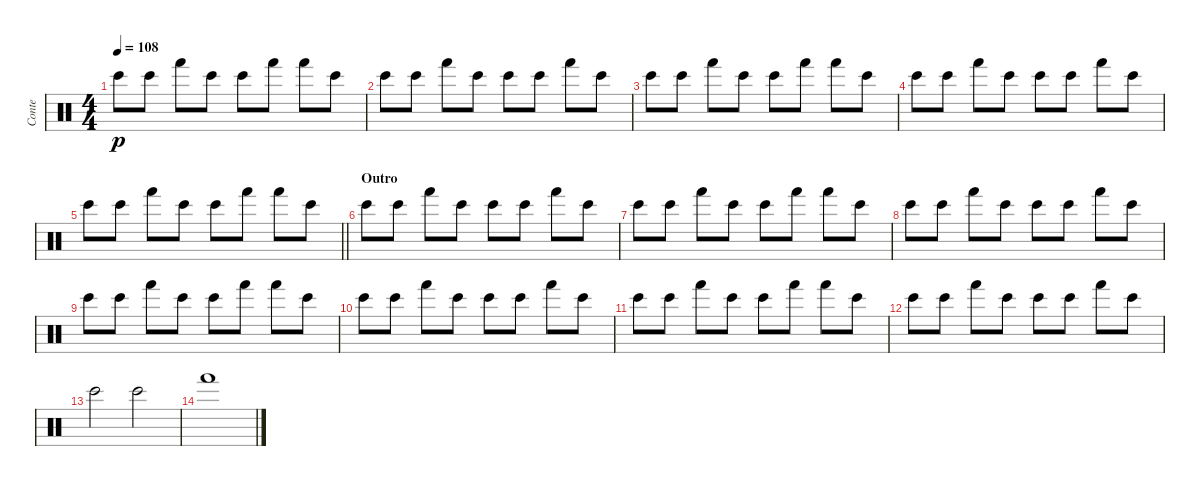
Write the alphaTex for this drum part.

\track ("Conte" "Conte") {instrument percussion}
\staff {score}
\articulation defaults
\ts (4 4)
\tempo 108
\clef neutral
\ks c "Bongo High (hit)".8{dy p} "Bongo High (hit)".8 "Hand (hit)".8 "Bongo High (hit)".8 "Bongo High (hit)".8 "Hand (hit)".8 "Hand (hit)".8 "Bongo High (hit)".8
|
"Bongo High (hit)".8 "Bongo High (hit)".8 "Hand (hit)".8 "Bongo High (hit)".8 "Bongo High (hit)".8 "Bongo High (hit)".8 "Hand (hit)".8 "Bongo High (hit)".8 |
"Bongo High (hit)".8 "Bongo High (hit)".8 "Hand (hit)".8 "Bongo High (hit)".8 "Bongo High (hit)".8 "Hand (hit)".8 "Hand (hit)".8 "Bongo High (hit)".8 |
"Bongo High (hit)".8 "Bongo High (hit)".8 "Hand (hit)".8 "Bongo High (hit)".8 "Bongo High (hit)".8 "Bongo High (hit)".8 "Hand (hit)".8 "Bongo High (hit)".8 |
\barLineRight lightlight "Bongo High (hit)".8 "Bongo High (hit)".8 "Hand (hit)".8 "Bongo High (hit)".8 "Bongo High (hit)".8 "Hand (hit)".8 "Hand (hit)".8 "Bongo High (hit)".8
|
\section ("" "Outro")
"Bongo High (hit)".8 "Bongo High (hit)".8 "Hand (hit)".8 "Bongo High (hit)".8 "Bongo High (hit)".8 "Bongo High (hit)".8 "Hand (hit)".8 "Bongo High (hit)".8 |
"Bongo High (hit)".8 "Bongo High (hit)".8 "Hand (hit)".8 "Bongo High (hit)".8 "Bongo High (hit)".8 "Hand (hit)".8 "Hand (hit)".8 "Bongo High (hit)".8 |
"Bongo High (hit)".8 "Bongo High (hit)".8 "Hand (hit)".8 "Bongo High (hit)".8 "Bongo High (hit)".8 "Bongo High (hit)".8 "Hand (hit)".8 "Bongo High (hit)".8 |
"Bongo High (hit)".8 "Bongo High (hit)".8 "Hand (hit)".8 "Bongo High (hit)".8 "Bongo High (hit)".8 "Hand (hit)".8 "Hand (hit)".8 "Bongo High (hit)".8 |
"Bongo High (hit)".8 "Bongo High (hit)".8 "Hand (hit)".8 "Bongo High (hit)".8 "Bongo High (hit)".8 "Bongo High (hit)".8 "Hand (hit)".8 "Bongo High (hit)".8 |
"Bongo High (hit)".8 "Bongo High (hit)".8 "Hand (hit)".8 "Bongo High (hit)".8 "Bongo High (hit)".8 "Hand (hit)".8 "Hand (hit)".8 "Bongo High (hit)".8 |
"Bongo High (hit)".8 "Bongo High (hit)".8 "Hand (hit)".8 "Bongo High (hit)".8 "Bongo High (hit)".8 "Bongo High (hit)".8 "Hand (hit)".8 "Bongo High (hit)".8 |
"Bongo High (hit)".2 "Bongo High (hit)".2 |
"Hand (hit)".1
